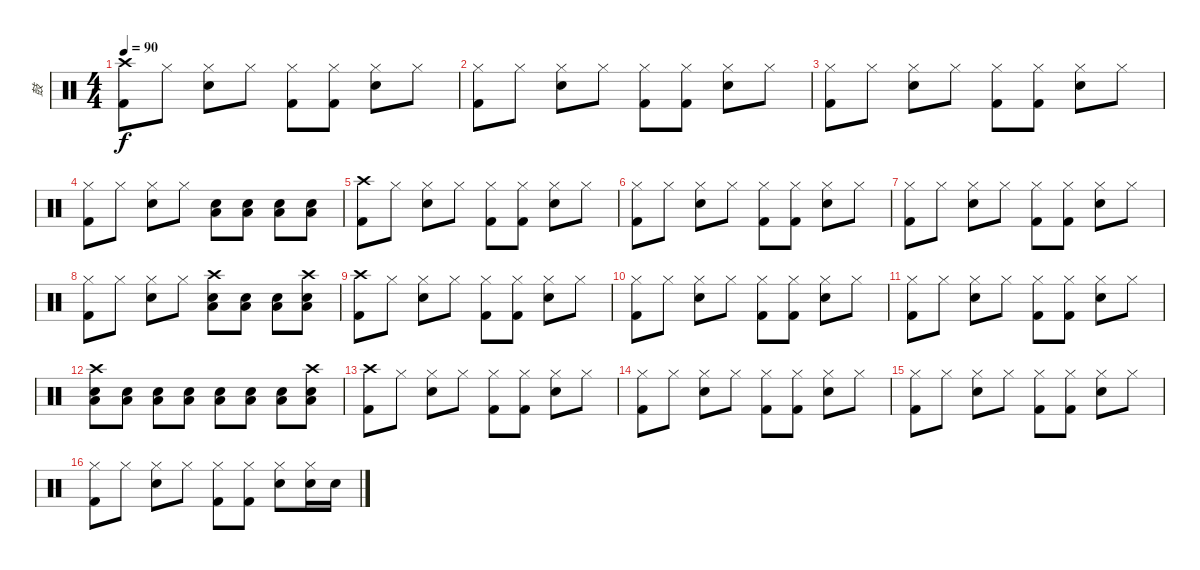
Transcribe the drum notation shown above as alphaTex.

\track ("鼓" "鼓") {instrument percussion}
\staff {score}
\articulation defaults
\ts (4 4)
\tempo 90
\clef neutral
\ks c
("Crash high (hit)" "Kick (hit) 2").8{dy f} "Hi-Hat (closed)".8 ("Hi-Hat (closed)" "Snare (hit) 2").8 "Hi-Hat (closed)".8 ("Hi-Hat (closed)" "Kick (hit) 2").8 ("Hi-Hat (closed)" "Kick (hit) 2").8 ("Hi-Hat (closed)" "Snare (hit) 2").8 "Hi-Hat (closed)".8 |
("Hi-Hat (closed)" "Kick (hit) 2").8 "Hi-Hat (closed)".8 ("Hi-Hat (closed)" "Snare (hit) 2").8 "Hi-Hat (closed)".8 ("Hi-Hat (closed)" "Kick (hit) 2").8 ("Hi-Hat (closed)" "Kick (hit) 2").8 ("Hi-Hat (closed)" "Snare (hit) 2").8 "Hi-Hat (closed)".8 |
("Hi-Hat (closed)" "Kick (hit) 2").8 "Hi-Hat (closed)".8 ("Hi-Hat (closed)" "Snare (hit) 2").8 "Hi-Hat (closed)".8 ("Hi-Hat (closed)" "Kick (hit) 2").8 ("Hi-Hat (closed)" "Kick (hit) 2").8 ("Hi-Hat (closed)" "Snare (hit) 2").8 "Hi-Hat (closed)".8 |
("Hi-Hat (closed)" "Kick (hit) 2").8 "Hi-Hat (closed)".8 ("Hi-Hat (closed)" "Snare (hit) 2").8 "Hi-Hat (closed)".8 ("Snare (hit) 2" "Low Floor Tom (hit)").8 ("Snare (hit) 2" "Low Floor Tom (hit)").8 ("Snare (hit) 2" "Low Floor Tom (hit)").8 ("Snare (hit) 2" "Low Floor Tom (hit)").8 |
("Crash high (hit)" "Kick (hit) 2").8 "Hi-Hat (closed)".8 ("Hi-Hat (closed)" "Snare (hit) 2").8 "Hi-Hat (closed)".8 ("Hi-Hat (closed)" "Kick (hit) 2").8 ("Hi-Hat (closed)" "Kick (hit) 2").8 ("Hi-Hat (closed)" "Snare (hit) 2").8 "Hi-Hat (closed)".8 |
("Hi-Hat (closed)" "Kick (hit) 2").8 "Hi-Hat (closed)".8 ("Hi-Hat (closed)" "Snare (hit) 2").8 "Hi-Hat (closed)".8 ("Hi-Hat (closed)" "Kick (hit) 2").8 ("Hi-Hat (closed)" "Kick (hit) 2").8 ("Hi-Hat (closed)" "Snare (hit) 2").8 "Hi-Hat (closed)".8 |
("Hi-Hat (closed)" "Kick (hit) 2").8 "Hi-Hat (closed)".8 ("Hi-Hat (closed)" "Snare (hit) 2").8 "Hi-Hat (closed)".8 ("Hi-Hat (closed)" "Kick (hit) 2").8 ("Hi-Hat (closed)" "Kick (hit) 2").8 ("Hi-Hat (closed)" "Snare (hit) 2").8 "Hi-Hat (closed)".8 |
("Hi-Hat (closed)" "Kick (hit) 2").8 "Hi-Hat (closed)".8 ("Hi-Hat (closed)" "Snare (hit) 2").8 "Hi-Hat (closed)".8 ("Crash high (hit)" "Snare (hit) 2" "Low Floor Tom (hit)").8 ("Snare (hit) 2" "Low Floor Tom (hit)").8 ("Snare (hit) 2" "Low Floor Tom (hit)").8 ("Crash high (hit)" "Snare (hit) 2" "Low Floor Tom (hit)").8 |
("Crash high (hit)" "Kick (hit) 2").8 "Hi-Hat (closed)".8 ("Hi-Hat (closed)" "Snare (hit) 2").8 "Hi-Hat (closed)".8 ("Hi-Hat (closed)" "Kick (hit) 2").8 ("Hi-Hat (closed)" "Kick (hit) 2").8 ("Hi-Hat (closed)" "Snare (hit) 2").8 "Hi-Hat (closed)".8 |
("Hi-Hat (closed)" "Kick (hit) 2").8 "Hi-Hat (closed)".8 ("Hi-Hat (closed)" "Snare (hit) 2").8 "Hi-Hat (closed)".8 ("Hi-Hat (closed)" "Kick (hit) 2").8 ("Hi-Hat (closed)" "Kick (hit) 2").8 ("Hi-Hat (closed)" "Snare (hit) 2").8 "Hi-Hat (closed)".8 |
("Hi-Hat (closed)" "Kick (hit) 2").8 "Hi-Hat (closed)".8 ("Hi-Hat (closed)" "Snare (hit) 2").8 "Hi-Hat (closed)".8 ("Hi-Hat (closed)" "Kick (hit) 2").8 ("Hi-Hat (closed)" "Kick (hit) 2").8 ("Hi-Hat (closed)" "Snare (hit) 2").8 "Hi-Hat (closed)".8 |
("Crash high (hit)" "Snare (hit) 2" "Low Floor Tom (hit)").8 ("Snare (hit) 2" "Low Floor Tom (hit)").8 ("Snare (hit) 2" "Low Floor Tom (hit)").8 ("Snare (hit) 2" "Low Floor Tom (hit)").8 ("Snare (hit) 2" "Low Floor Tom (hit)").8 ("Snare (hit) 2" "Low Floor Tom (hit)").8 ("Snare (hit) 2" "Low Floor Tom (hit)").8 ("Crash high (hit)" "Snare (hit) 2" "Low Floor Tom (hit)").8 |
("Crash high (hit)" "Kick (hit) 2").8 "Hi-Hat (closed)".8 ("Hi-Hat (closed)" "Snare (hit) 2").8 "Hi-Hat (closed)".8 ("Hi-Hat (closed)" "Kick (hit) 2").8 ("Hi-Hat (closed)" "Kick (hit) 2").8 ("Hi-Hat (closed)" "Snare (hit) 2").8 "Hi-Hat (closed)".8 |
("Hi-Hat (closed)" "Kick (hit) 2").8 "Hi-Hat (closed)".8 ("Hi-Hat (closed)" "Snare (hit) 2").8 "Hi-Hat (closed)".8 ("Hi-Hat (closed)" "Kick (hit) 2").8 ("Hi-Hat (closed)" "Kick (hit) 2").8 ("Hi-Hat (closed)" "Snare (hit) 2").8 "Hi-Hat (closed)".8 |
("Hi-Hat (closed)" "Kick (hit) 2").8 "Hi-Hat (closed)".8 ("Hi-Hat (closed)" "Snare (hit) 2").8 "Hi-Hat (closed)".8 ("Hi-Hat (closed)" "Kick (hit) 2").8 ("Hi-Hat (closed)" "Kick (hit) 2").8 ("Hi-Hat (closed)" "Snare (hit) 2").8 "Hi-Hat (closed)".8 |
("Hi-Hat (closed)" "Kick (hit) 2").8 "Hi-Hat (closed)".8 ("Hi-Hat (closed)" "Snare (hit) 2").8 "Hi-Hat (closed)".8 ("Hi-Hat (closed)" "Kick (hit) 2").8 ("Hi-Hat (closed)" "Kick (hit) 2").8 ("Hi-Hat (closed)" "Snare (hit) 2").8 ("Hi-Hat (closed)" "Snare (hit) 2").16 "Snare (hit) 2".16
